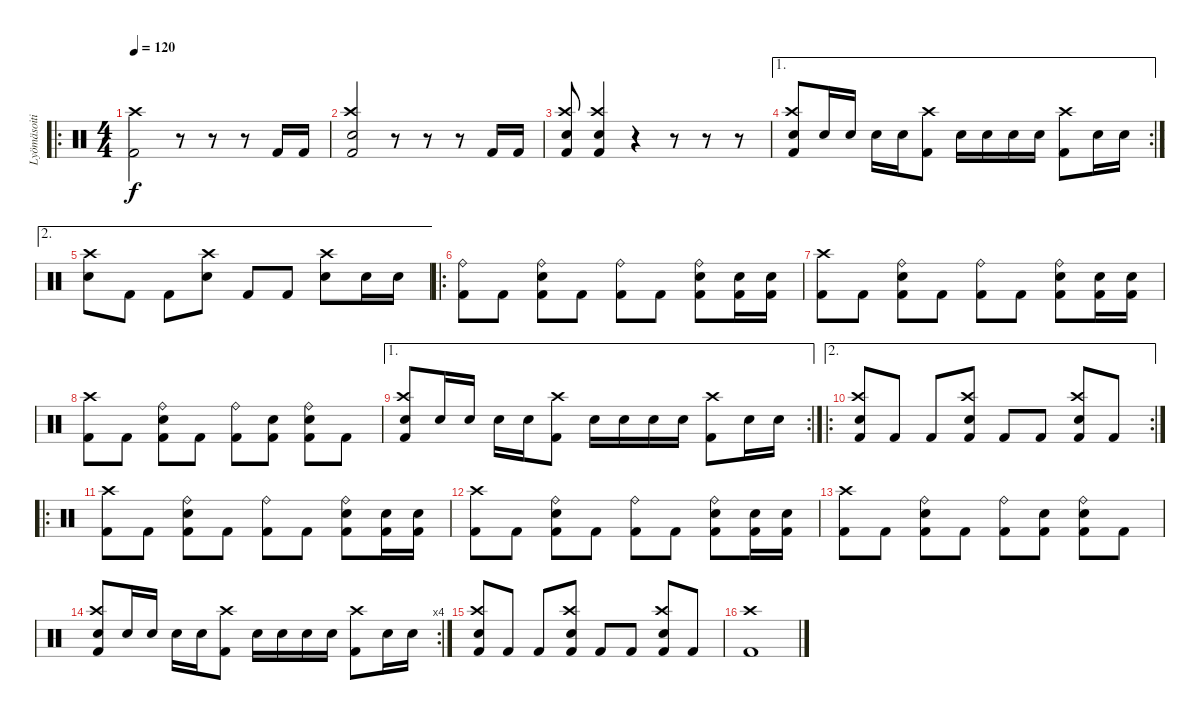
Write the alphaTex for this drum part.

\track ("Lyömäsoitin" "Lyömäsoiti") {instrument percussion}
\staff {score}
\articulation defaults
\ro
\ts (4 4)
\tempo 120
\clef neutral
\ks c
("Kick (hit) 2" "Crash high (hit)").2{dy f} r.8 r.8 r.8 "Kick (hit) 2".16 "Kick (hit) 2".16 |
("Crash high (hit)" "Kick (hit) 2" "Electric Snare (hit)").2 r.8 r.8 r.8 "Kick (hit) 2".16 "Kick (hit) 2".16 |
("Kick (hit) 2" "Crash high (hit)" "Electric Snare (hit)").8 ("Kick (hit) 2" "Crash high (hit)" "Electric Snare (hit)").4 r.4 r.8 r.8 r.8 |
\ae 1
\rc 2
("Kick (hit) 2" "Crash high (hit)" "Electric Snare (hit)").8 "Electric Snare (hit)".16 "Electric Snare (hit)".16 "Electric Snare (hit)".16 "Electric Snare (hit)".16 ("Kick (hit) 2" "Crash high (hit)").8 "Electric Snare (hit)".16 "Electric Snare (hit)".16 "Electric Snare (hit)".16 "Electric Snare (hit)".16 ("Kick (hit) 2" "Crash high (hit)").8 "Electric Snare (hit)".16 "Electric Snare (hit)".16 |
\ae 2
("Electric Snare (hit)" "Crash high (hit)").8 "Kick (hit) 2".8 "Kick (hit) 2".8 ("Electric Snare (hit)" "Crash high (hit)").8 "Kick (hit) 2".8 "Kick (hit) 2".8 ("Electric Snare (hit)" "Crash high (hit)").8 "Electric Snare (hit)".16 "Electric Snare (hit)".16 |
\ro
("Kick (hit) 2" "Ride (bell)").8 "Kick (hit) 2".8 ("Kick (hit) 2" "Ride (bell)" "Electric Snare (hit)").8 "Kick (hit) 2".8 ("Kick (hit) 2" "Ride (bell)").8 "Kick (hit) 2".8 ("Kick (hit) 2" "Ride (bell)" "Electric Snare (hit)").8 ("Kick (hit) 2" "Electric Snare (hit)").16 ("Kick (hit) 2" "Electric Snare (hit)").16 |
("Kick (hit) 2" "Crash high (hit)").8 "Kick (hit) 2".8 ("Kick (hit) 2" "Ride (bell)" "Electric Snare (hit)").8 "Kick (hit) 2".8 ("Kick (hit) 2" "Ride (bell)").8 "Kick (hit) 2".8 ("Kick (hit) 2" "Ride (bell)" "Electric Snare (hit)").8 ("Kick (hit) 2" "Electric Snare (hit)").16 ("Kick (hit) 2" "Electric Snare (hit)").16 |
("Kick (hit) 2" "Crash high (hit)").8 "Kick (hit) 2".8 ("Kick (hit) 2" "Ride (bell)" "Electric Snare (hit)").8 "Kick (hit) 2".8 ("Kick (hit) 2" "Ride (bell)").8 ("Kick (hit) 2" "Snare (hit)").8 ("Kick (hit) 2" "Ride (bell)" "Electric Snare (hit)").8 "Kick (hit) 2".8 |
\ae 1
\rc 2
("Kick (hit) 2" "Crash high (hit)" "Electric Snare (hit)").8 "Electric Snare (hit)".16 "Electric Snare (hit)".16 "Electric Snare (hit)".16 "Electric Snare (hit)".16 ("Kick (hit) 2" "Crash high (hit)").8 "Electric Snare (hit)".16 "Electric Snare (hit)".16 "Electric Snare (hit)".16 "Electric Snare (hit)".16 ("Kick (hit) 2" "Crash high (hit)").8 "Electric Snare (hit)".16 "Electric Snare (hit)".16 |
\ae 2
\ro
\rc 2
("Kick (hit) 2" "Crash high (hit)" "Electric Snare (hit)").8 "Kick (hit) 2".8 "Kick (hit) 2".8 ("Kick (hit) 2" "Crash high (hit)" "Electric Snare (hit)").8 "Kick (hit) 2".8 "Kick (hit) 2".8 ("Kick (hit) 2" "Crash high (hit)" "Electric Snare (hit)").8 "Kick (hit) 2".8 |
\ro
("Kick (hit) 2" "Crash high (hit)").8 "Kick (hit) 2".8 ("Kick (hit) 2" "Ride (bell)" "Electric Snare (hit)").8 "Kick (hit) 2".8 ("Kick (hit) 2" "Ride (bell)").8 "Kick (hit) 2".8 ("Kick (hit) 2" "Ride (bell)" "Electric Snare (hit)").8 ("Kick (hit) 2" "Electric Snare (hit)").16 ("Kick (hit) 2" "Electric Snare (hit)").16 |
("Kick (hit) 2" "Crash high (hit)").8 "Kick (hit) 2".8 ("Kick (hit) 2" "Ride (bell)" "Electric Snare (hit)").8 "Kick (hit) 2".8 ("Kick (hit) 2" "Ride (bell)").8 "Kick (hit) 2".8 ("Kick (hit) 2" "Ride (bell)" "Electric Snare (hit)").8 ("Kick (hit) 2" "Electric Snare (hit)").16 ("Kick (hit) 2" "Electric Snare (hit)").16 |
("Kick (hit) 2" "Crash high (hit)").8 "Kick (hit) 2".8 ("Kick (hit) 2" "Ride (bell)" "Electric Snare (hit)").8 "Kick (hit) 2".8 ("Kick (hit) 2" "Ride (bell)").8 ("Kick (hit) 2" "Snare (hit)").8 ("Kick (hit) 2" "Ride (bell)" "Electric Snare (hit)").8 "Kick (hit) 2".8 |
\rc 4
("Kick (hit) 2" "Crash high (hit)" "Electric Snare (hit)").8 "Electric Snare (hit)".16 "Electric Snare (hit)".16 "Electric Snare (hit)".16 "Electric Snare (hit)".16 ("Kick (hit) 2" "Crash high (hit)").8 "Electric Snare (hit)".16 "Electric Snare (hit)".16 "Electric Snare (hit)".16 "Electric Snare (hit)".16 ("Kick (hit) 2" "Crash high (hit)").8 "Electric Snare (hit)".16 "Electric Snare (hit)".16 |
("Kick (hit) 2" "Crash high (hit)" "Electric Snare (hit)").8 "Kick (hit) 2".8 "Kick (hit) 2".8 ("Kick (hit) 2" "Crash high (hit)" "Electric Snare (hit)").8 "Kick (hit) 2".8 "Kick (hit) 2".8 ("Kick (hit) 2" "Crash high (hit)" "Electric Snare (hit)").8 "Kick (hit) 2".8 |
("Kick (hit) 2" "Crash high (hit)").1
